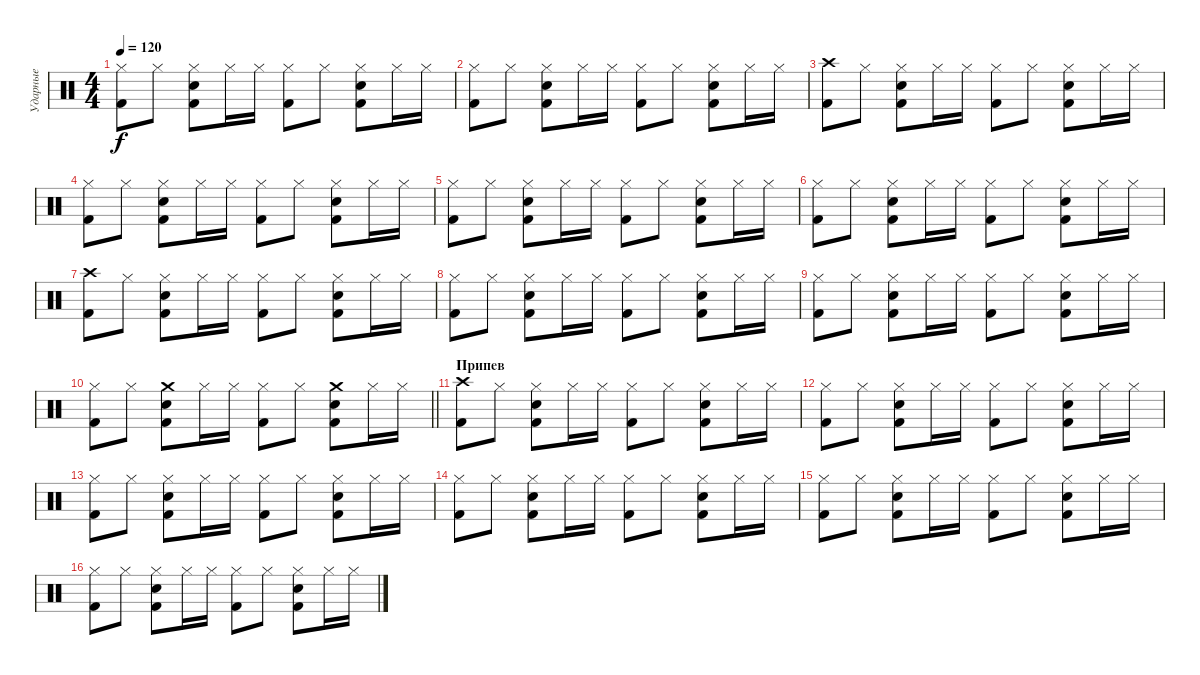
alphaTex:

\track ("Ударные" "Ударные") {instrument percussion}
\staff {score}
\articulation defaults
\ts (4 4)
\tempo 120
\clef neutral
\ks c
("Hi-Hat (closed)" "Kick (hit) 2").8{dy f} "Hi-Hat (closed)".8 ("Hi-Hat (closed)" "Kick (hit) 2" "Electric Snare (hit)").8 "Hi-Hat (closed)".16 "Hi-Hat (closed)".16 ("Hi-Hat (closed)" "Kick (hit) 2").8 "Hi-Hat (closed)".8 ("Hi-Hat (closed)" "Kick (hit) 2" "Electric Snare (hit)").8 "Hi-Hat (closed)".16 "Hi-Hat (closed)".16 |
("Hi-Hat (closed)" "Kick (hit) 2").8 "Hi-Hat (closed)".8 ("Hi-Hat (closed)" "Kick (hit) 2" "Electric Snare (hit)").8 "Hi-Hat (closed)".16 "Hi-Hat (closed)".16 ("Hi-Hat (closed)" "Kick (hit) 2").8 "Hi-Hat (closed)".8 ("Hi-Hat (closed)" "Kick (hit) 2" "Electric Snare (hit)").8 "Hi-Hat (closed)".16 "Hi-Hat (closed)".16 |
("Crash high (hit)" "Kick (hit) 2").8 "Hi-Hat (closed)".8 ("Hi-Hat (closed)" "Kick (hit) 2" "Electric Snare (hit)").8 "Hi-Hat (closed)".16 "Hi-Hat (closed)".16 ("Hi-Hat (closed)" "Kick (hit) 2").8 "Hi-Hat (closed)".8 ("Hi-Hat (closed)" "Kick (hit) 2" "Electric Snare (hit)").8 "Hi-Hat (closed)".16 "Hi-Hat (closed)".16 |
("Hi-Hat (closed)" "Kick (hit) 2").8 "Hi-Hat (closed)".8 ("Hi-Hat (closed)" "Kick (hit) 2" "Electric Snare (hit)").8 "Hi-Hat (closed)".16 "Hi-Hat (closed)".16 ("Hi-Hat (closed)" "Kick (hit) 2").8 "Hi-Hat (closed)".8 ("Hi-Hat (closed)" "Kick (hit) 2" "Electric Snare (hit)").8 "Hi-Hat (closed)".16 "Hi-Hat (closed)".16 |
("Hi-Hat (closed)" "Kick (hit) 2").8 "Hi-Hat (closed)".8 ("Hi-Hat (closed)" "Kick (hit) 2" "Electric Snare (hit)").8 "Hi-Hat (closed)".16 "Hi-Hat (closed)".16 ("Hi-Hat (closed)" "Kick (hit) 2").8 "Hi-Hat (closed)".8 ("Hi-Hat (closed)" "Kick (hit) 2" "Electric Snare (hit)").8 "Hi-Hat (closed)".16 "Hi-Hat (closed)".16 |
("Hi-Hat (closed)" "Kick (hit) 2").8 "Hi-Hat (closed)".8 ("Hi-Hat (closed)" "Kick (hit) 2" "Electric Snare (hit)").8 "Hi-Hat (closed)".16 "Hi-Hat (closed)".16 ("Hi-Hat (closed)" "Kick (hit) 2").8 "Hi-Hat (closed)".8 ("Hi-Hat (closed)" "Kick (hit) 2" "Electric Snare (hit)").8 "Hi-Hat (closed)".16 "Hi-Hat (closed)".16 |
("Crash high (hit)" "Kick (hit) 2").8 "Hi-Hat (closed)".8 ("Hi-Hat (closed)" "Kick (hit) 2" "Electric Snare (hit)").8 "Hi-Hat (closed)".16 "Hi-Hat (closed)".16 ("Hi-Hat (closed)" "Kick (hit) 2").8 "Hi-Hat (closed)".8 ("Hi-Hat (closed)" "Kick (hit) 2" "Electric Snare (hit)").8 "Hi-Hat (closed)".16 "Hi-Hat (closed)".16 |
("Hi-Hat (closed)" "Kick (hit) 2").8 "Hi-Hat (closed)".8 ("Hi-Hat (closed)" "Kick (hit) 2" "Electric Snare (hit)").8 "Hi-Hat (closed)".16 "Hi-Hat (closed)".16 ("Hi-Hat (closed)" "Kick (hit) 2").8 "Hi-Hat (closed)".8 ("Hi-Hat (closed)" "Kick (hit) 2" "Electric Snare (hit)").8 "Hi-Hat (closed)".16 "Hi-Hat (closed)".16 |
("Hi-Hat (closed)" "Kick (hit) 2").8 "Hi-Hat (closed)".8 ("Hi-Hat (closed)" "Kick (hit) 2" "Electric Snare (hit)").8 "Hi-Hat (closed)".16 "Hi-Hat (closed)".16 ("Hi-Hat (closed)" "Kick (hit) 2").8 "Hi-Hat (closed)".8 ("Hi-Hat (closed)" "Kick (hit) 2" "Electric Snare (hit)").8 "Hi-Hat (closed)".16 "Hi-Hat (closed)".16 |
\barLineRight lightlight
("Hi-Hat (closed)" "Kick (hit) 2").8 "Hi-Hat (closed)".8 ("Crash medium (hit)" "Kick (hit) 2" "Electric Snare (hit)").8 "Hi-Hat (closed)".16 "Hi-Hat (closed)".16 ("Hi-Hat (closed)" "Kick (hit) 2").8 "Hi-Hat (closed)".8 ("Crash medium (hit)" "Kick (hit) 2" "Electric Snare (hit)").8 "Hi-Hat (closed)".16 "Hi-Hat (closed)".16 |
\section ("" "Припев")
("Crash high (hit)" "Kick (hit) 2").8 "Hi-Hat (closed)".8 ("Hi-Hat (closed)" "Kick (hit) 2" "Electric Snare (hit)").8 "Hi-Hat (closed)".16 "Hi-Hat (closed)".16 ("Hi-Hat (closed)" "Kick (hit) 2").8 "Hi-Hat (closed)".8 ("Hi-Hat (closed)" "Kick (hit) 2" "Electric Snare (hit)").8 "Hi-Hat (closed)".16 "Hi-Hat (closed)".16 |
("Hi-Hat (closed)" "Kick (hit) 2").8 "Hi-Hat (closed)".8 ("Hi-Hat (closed)" "Kick (hit) 2" "Electric Snare (hit)").8 "Hi-Hat (closed)".16 "Hi-Hat (closed)".16 ("Hi-Hat (closed)" "Kick (hit) 2").8 "Hi-Hat (closed)".8 ("Hi-Hat (closed)" "Kick (hit) 2" "Electric Snare (hit)").8 "Hi-Hat (closed)".16 "Hi-Hat (closed)".16 |
("Hi-Hat (closed)" "Kick (hit) 2").8 "Hi-Hat (closed)".8 ("Hi-Hat (closed)" "Kick (hit) 2" "Electric Snare (hit)").8 "Hi-Hat (closed)".16 "Hi-Hat (closed)".16 ("Hi-Hat (closed)" "Kick (hit) 2").8 "Hi-Hat (closed)".8 ("Hi-Hat (closed)" "Kick (hit) 2" "Electric Snare (hit)").8 "Hi-Hat (closed)".16 "Hi-Hat (closed)".16 |
("Hi-Hat (closed)" "Kick (hit) 2").8 "Hi-Hat (closed)".8 ("Hi-Hat (closed)" "Kick (hit) 2" "Electric Snare (hit)").8 "Hi-Hat (closed)".16 "Hi-Hat (closed)".16 ("Hi-Hat (closed)" "Kick (hit) 2").8 "Hi-Hat (closed)".8 ("Hi-Hat (closed)" "Kick (hit) 2" "Electric Snare (hit)").8 "Hi-Hat (closed)".16 "Hi-Hat (closed)".16 |
("Hi-Hat (closed)" "Kick (hit) 2").8 "Hi-Hat (closed)".8 ("Hi-Hat (closed)" "Kick (hit) 2" "Electric Snare (hit)").8 "Hi-Hat (closed)".16 "Hi-Hat (closed)".16 ("Hi-Hat (closed)" "Kick (hit) 2").8 "Hi-Hat (closed)".8 ("Hi-Hat (closed)" "Kick (hit) 2" "Electric Snare (hit)").8 "Hi-Hat (closed)".16 "Hi-Hat (closed)".16 |
("Hi-Hat (closed)" "Kick (hit) 2").8 "Hi-Hat (closed)".8 ("Hi-Hat (closed)" "Kick (hit) 2" "Electric Snare (hit)").8 "Hi-Hat (closed)".16 "Hi-Hat (closed)".16 ("Hi-Hat (closed)" "Kick (hit) 2").8 "Hi-Hat (closed)".8 ("Hi-Hat (closed)" "Kick (hit) 2" "Electric Snare (hit)").8 "Hi-Hat (closed)".16 "Hi-Hat (closed)".16
